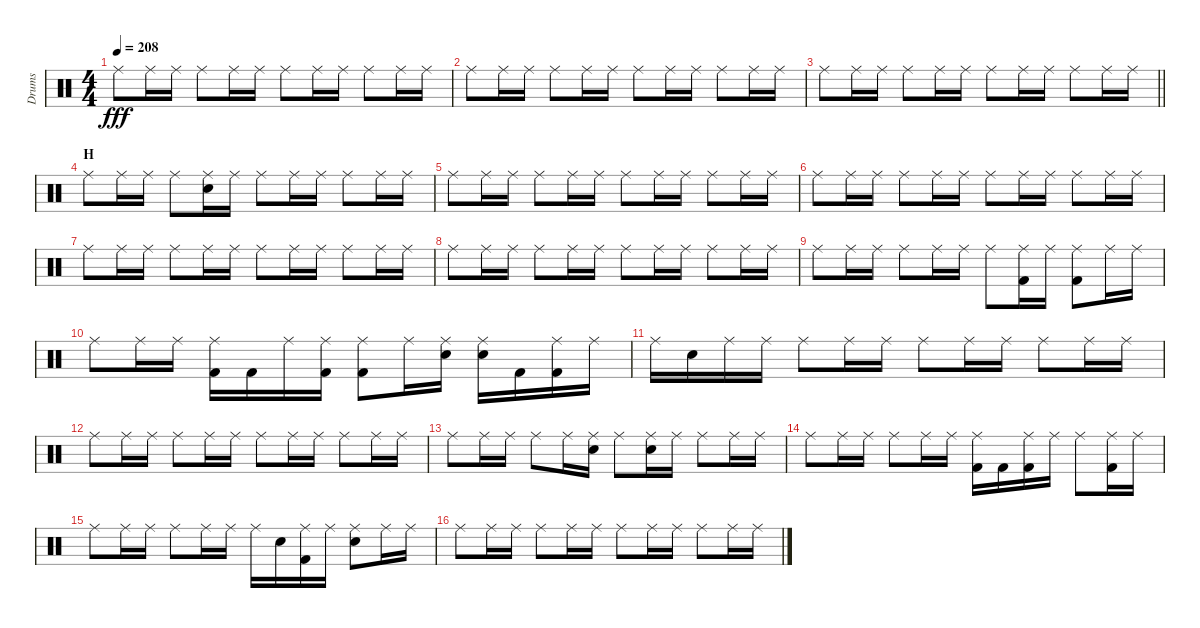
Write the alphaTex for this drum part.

\track ("Drums" "Drums") {instrument percussion}
\staff {score}
\articulation defaults
\ts (4 4)
\tempo 208
\clef neutral
\ks c "Ride (middle)".8{dy fff} "Ride (middle)".16 "Ride (middle)".16 "Ride (middle)".8 "Ride (middle)".16 "Ride (middle)".16 "Ride (middle)".8 "Ride (middle)".16 "Ride (middle)".16 "Ride (middle)".8 "Ride (middle)".16 "Ride (middle)".16
|
"Ride (middle)".8 "Ride (middle)".16 "Ride (middle)".16 "Ride (middle)".8 "Ride (middle)".16 "Ride (middle)".16 "Ride (middle)".8 "Ride (middle)".16 "Ride (middle)".16 "Ride (middle)".8 "Ride (middle)".16 "Ride (middle)".16 |
\barLineRight lightlight "Ride (middle)".8 "Ride (middle)".16 "Ride (middle)".16 "Ride (middle)".8 "Ride (middle)".16 "Ride (middle)".16 "Ride (middle)".8 "Ride (middle)".16 "Ride (middle)".16 "Ride (middle)".8 "Ride (middle)".16 "Ride (middle)".16
|
\section ("" "H")
"Ride (middle)".8 "Ride (middle)".16 "Ride (middle)".16 "Ride (middle)".8 ("Ride (middle)" "Snare (hit) 2").16 "Ride (middle)".16 "Ride (middle)".8 "Ride (middle)".16 "Ride (middle)".16 "Ride (middle)".8 "Ride (middle)".16 "Ride (middle)".16 |
"Ride (middle)".8 "Ride (middle)".16 "Ride (middle)".16 "Ride (middle)".8 "Ride (middle)".16 "Ride (middle)".16 "Ride (middle)".8 "Ride (middle)".16 "Ride (middle)".16 "Ride (middle)".8 "Ride (middle)".16 "Ride (middle)".16 |
"Ride (middle)".8 "Ride (middle)".16 "Ride (middle)".16 "Ride (middle)".8 "Ride (middle)".16 "Ride (middle)".16 "Ride (middle)".8 "Ride (middle)".16 "Ride (middle)".16 "Ride (middle)".8 "Ride (middle)".16 "Ride (middle)".16 |
"Ride (middle)".8 "Ride (middle)".16 "Ride (middle)".16 "Ride (middle)".8 "Ride (middle)".16 "Ride (middle)".16 "Ride (middle)".8 "Ride (middle)".16 "Ride (middle)".16 "Ride (middle)".8 "Ride (middle)".16 "Ride (middle)".16 |
"Ride (middle)".8 "Ride (middle)".16 "Ride (middle)".16 "Ride (middle)".8 "Ride (middle)".16 "Ride (middle)".16 "Ride (middle)".8 "Ride (middle)".16 "Ride (middle)".16 "Ride (middle)".8 "Ride (middle)".16 "Ride (middle)".16 |
"Ride (middle)".8 "Ride (middle)".16 "Ride (middle)".16 "Ride (middle)".8 "Ride (middle)".16 "Ride (middle)".16 "Ride (middle)".8 ("Ride (middle)" "Kick (hit) 2").16 "Ride (middle)".16 ("Ride (middle)" "Kick (hit) 2").8 "Ride (middle)".16 "Ride (middle)".16 |
"Ride (middle)".8 "Ride (middle)".16 "Ride (middle)".16 ("Ride (middle)" "Kick (hit) 2").16 "Kick (hit) 2".16 "Ride (middle)".16 ("Ride (middle)" "Kick (hit) 2").16 ("Ride (middle)" "Kick (hit) 2").8 "Ride (middle)".16 ("Ride (middle)" "Snare (hit) 2").16 ("Ride (middle)" "Snare (hit) 2").16 "Kick (hit) 2".16 ("Ride (middle)" "Kick (hit) 2").16 "Ride (middle)".16 |
"Ride (middle)".16 "Snare (hit) 2".16 "Ride (middle)".16 "Ride (middle)".16 "Ride (middle)".8 "Ride (middle)".16 "Ride (middle)".16 "Ride (middle)".8 "Ride (middle)".16 "Ride (middle)".16 "Ride (middle)".8 "Ride (middle)".16 "Ride (middle)".16 |
"Ride (middle)".8 "Ride (middle)".16 "Ride (middle)".16 "Ride (middle)".8 "Ride (middle)".16 "Ride (middle)".16 "Ride (middle)".8 "Ride (middle)".16 "Ride (middle)".16 "Ride (middle)".8 "Ride (middle)".16 "Ride (middle)".16 |
"Ride (middle)".8 "Ride (middle)".16 "Ride (middle)".16 "Ride (middle)".8 "Ride (middle)".16 ("Ride (middle)" "Snare (hit) 2").16 "Ride (middle)".8 ("Ride (middle)" "Snare (hit) 2").16 "Ride (middle)".16 "Ride (middle)".8 "Ride (middle)".16 "Ride (middle)".16 |
"Ride (middle)".8 "Ride (middle)".16 "Ride (middle)".16 "Ride (middle)".8 "Ride (middle)".16 "Ride (middle)".16 ("Ride (middle)" "Kick (hit) 2").16 "Kick (hit) 2".16 ("Ride (middle)" "Kick (hit) 2").16 "Ride (middle)".16 "Ride (middle)".8 ("Ride (middle)" "Kick (hit) 2").16 "Ride (middle)".16 |
"Ride (middle)".8 "Ride (middle)".16 "Ride (middle)".16 "Ride (middle)".8 "Ride (middle)".16 "Ride (middle)".16 "Ride (middle)".16 "Snare (hit) 2".16 ("Ride (middle)" "Kick (hit) 2").16 "Ride (middle)".16 ("Ride (middle)" "Snare (hit) 2").8 "Ride (middle)".16 "Ride (middle)".16 |
"Ride (middle)".8 "Ride (middle)".16 "Ride (middle)".16 "Ride (middle)".8 "Ride (middle)".16 "Ride (middle)".16 "Ride (middle)".8 "Ride (middle)".16 "Ride (middle)".16 "Ride (middle)".8 "Ride (middle)".16 "Ride (middle)".16
